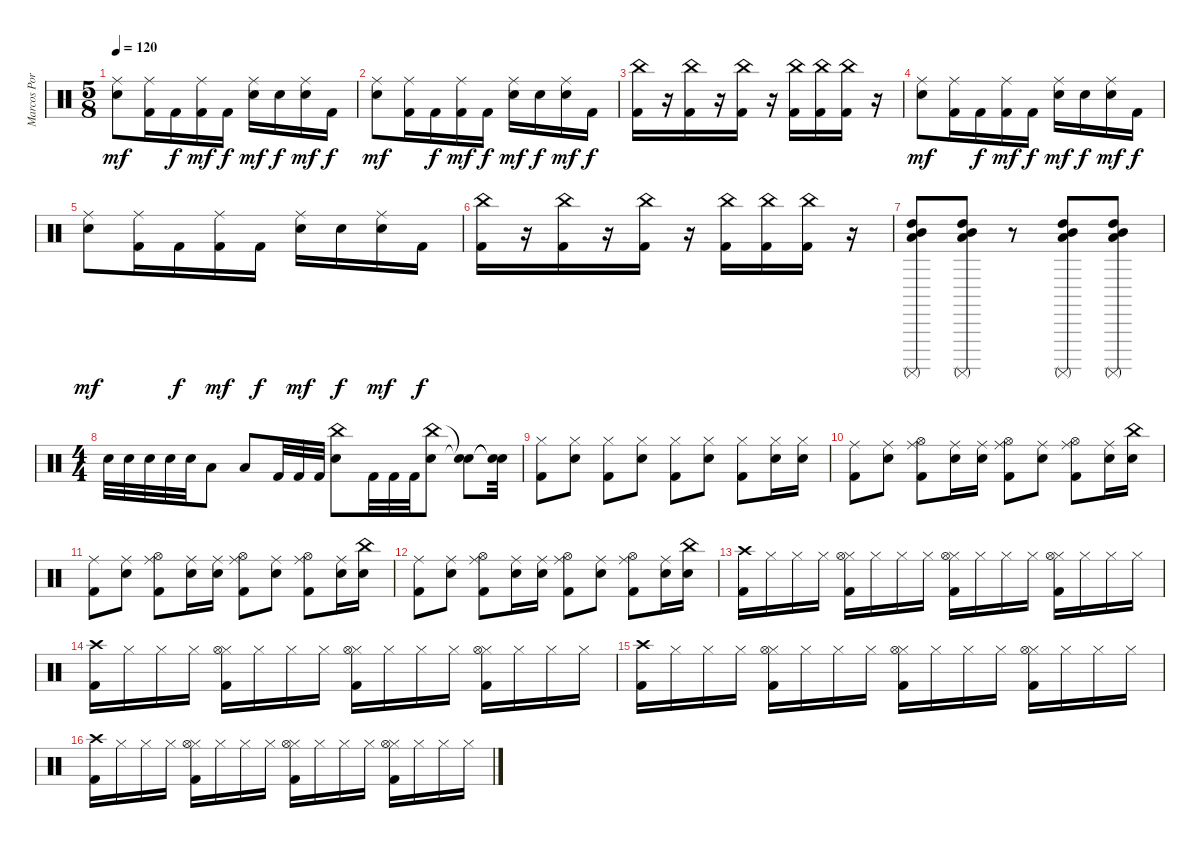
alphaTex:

\track ("Marcos Portinol" "Marcos Por") {instrument percussion}
\staff {score}
\articulation defaults
\ts (5 8)
\tempo 120
\clef neutral
\ks c
("Electric Snare (hit)" "Ride (middle)").8{dy mf} ("Kick (hit) 2" "Ride (middle)").16 "Kick (hit) 2".16{dy f} ("Kick (hit) 2" "Ride (middle)").16{dy mf} "Kick (hit) 2".16{dy f} ("Electric Snare (hit)" "Ride (middle)").16{dy mf} "Electric Snare (hit)".16{dy f} ("Electric Snare (hit)" "Ride (middle)").16{dy mf} "Kick (hit) 2".16{dy f} |
("Electric Snare (hit)" "Ride (middle)").8{dy mf} ("Kick (hit) 2" "Ride (middle)").16 "Kick (hit) 2".16{dy f} ("Kick (hit) 2" "Ride (middle)").16{dy mf} "Kick (hit) 2".16{dy f} ("Electric Snare (hit)" "Ride (middle)").16{dy mf} "Electric Snare (hit)".16{dy f} ("Electric Snare (hit)" "Ride (middle)").16{dy mf} "Kick (hit) 2".16{dy f} |
("Kick (hit) 2" "China (hit)").16 r.16 ("Kick (hit) 2" "China (hit)").16 r.16 ("Kick (hit) 2" "China (hit)").16 r.16 ("Kick (hit) 2" "China (hit)").16 ("Kick (hit) 2" "China (hit)").16 ("Kick (hit) 2" "China (hit)").16 r.16 |
("Electric Snare (hit)" "Ride (middle)").8{dy mf} ("Kick (hit) 2" "Ride (middle)").16 "Kick (hit) 2".16{dy f} ("Kick (hit) 2" "Ride (middle)").16{dy mf} "Kick (hit) 2".16{dy f} ("Electric Snare (hit)" "Ride (middle)").16{dy mf} "Electric Snare (hit)".16{dy f} ("Electric Snare (hit)" "Ride (middle)").16{dy mf} "Kick (hit) 2".16{dy f} |
("Electric Snare (hit)" "Ride (middle)").8{dy mf} ("Kick (hit) 2" "Ride (middle)").16 "Kick (hit) 2".16{dy f} ("Kick (hit) 2" "Ride (middle)").16{dy mf} "Kick (hit) 2".16{dy f} ("Electric Snare (hit)" "Ride (middle)").16{dy mf} "Electric Snare (hit)".16{dy f} ("Electric Snare (hit)" "Ride (middle)").16{dy mf} "Kick (hit) 2".16{dy f} |
("Kick (hit) 2" "China (hit)").16 r.16 ("Kick (hit) 2" "China (hit)").16 r.16 ("Kick (hit) 2" "China (hit)").16 r.16 ("Kick (hit) 2" "China (hit)").16 ("Kick (hit) 2" "China (hit)").16 ("Kick (hit) 2" "China (hit)").16 r.16 |
("Surdo (mute)" "Mid Tom (hit)" "Low Tom (hit)" "High Tom (hit)").8 ("Surdo (mute)" "Mid Tom (hit)" "Low Tom (hit)" "High Tom (hit)").8 r.8 ("Surdo (mute)" "Mid Tom (hit)" "Low Tom (hit)" "High Tom (hit)").8 ("Surdo (mute)" "Mid Tom (hit)" "Low Tom (hit)" "High Tom (hit)").8 |
\ts (4 4)
"Electric Snare (hit)".32 "Electric Snare (hit)".32 "Electric Snare (hit)".32 "Electric Snare (hit)".32 "Electric Snare (hit)".32 "Low Tom (hit)".8 "Low Tom (hit)".8 "Kick (hit) 2".32 "Kick (hit) 2".32 "Kick (hit) 2".32 ("Electric Snare (hit)" "China (hit)").8 "Kick (hit) 2".32 "Kick (hit) 2".32 "Kick (hit) 2".32 ("Electric Snare (hit)" "China (hit)").8 ("Snare (hit)"{t} "Snare (hit)"{t}).8 ("Snare (hit)"{t} "Snare (hit)"{t}).32 |
("Kick (hit) 2" "Hi-Hat (closed)").8 ("Electric Snare (hit)" "Hi-Hat (closed)").8 ("Kick (hit) 2" "Hi-Hat (closed)").8 ("Electric Snare (hit)" "Hi-Hat (closed)").8 ("Kick (hit) 2" "Hi-Hat (closed)").8 ("Electric Snare (hit)" "Hi-Hat (closed)").8 ("Kick (hit) 2" "Hi-Hat (closed)").8 ("Electric Snare (hit)" "Hi-Hat (closed)").16 ("Electric Snare (hit)" "Hi-Hat (closed)").16 |
("Kick (hit) 2" "Ride (middle)").8 ("Electric Snare (hit)" "Ride (middle)").8 ("Kick (hit) 2" "Hi-Hat (open)" "Ride (middle)").8 ("Electric Snare (hit)" "Ride (middle)").16 ("Electric Snare (hit)" "Ride (middle)").16 ("Kick (hit) 2" "Hi-Hat (open)" "Ride (middle)").8 ("Electric Snare (hit)" "Ride (middle)").8 ("Kick (hit) 2" "Hi-Hat (open)" "Ride (middle)").8 ("Electric Snare (hit)" "Ride (middle)").16 ("Electric Snare (hit)" "China (hit)").16 |
("Kick (hit) 2" "Ride (middle)").8 ("Electric Snare (hit)" "Ride (middle)").8 ("Kick (hit) 2" "Hi-Hat (open)" "Ride (middle)").8 ("Electric Snare (hit)" "Ride (middle)").16 ("Electric Snare (hit)" "Ride (middle)").16 ("Kick (hit) 2" "Hi-Hat (open)" "Ride (middle)").8 ("Electric Snare (hit)" "Ride (middle)").8 ("Kick (hit) 2" "Hi-Hat (open)" "Ride (middle)").8 ("Electric Snare (hit)" "Ride (middle)").16 ("Electric Snare (hit)" "China (hit)").16 |
("Kick (hit) 2" "Ride (middle)").8 ("Electric Snare (hit)" "Ride (middle)").8 ("Kick (hit) 2" "Hi-Hat (open)" "Ride (middle)").8 ("Electric Snare (hit)" "Ride (middle)").16 ("Electric Snare (hit)" "Ride (middle)").16 ("Kick (hit) 2" "Hi-Hat (open)" "Ride (middle)").8 ("Electric Snare (hit)" "Ride (middle)").8 ("Kick (hit) 2" "Hi-Hat (open)" "Ride (middle)").8 ("Electric Snare (hit)" "Ride (middle)").16 ("Electric Snare (hit)" "China (hit)").16 |
("Kick (hit) 2" "Crash high (hit)").16 "Hi-Hat (closed)".16 "Hi-Hat (closed)".16 "Hi-Hat (closed)".16 ("Kick (hit) 2" "Hi-Hat (closed)" "Hi-Hat (open)").16 "Hi-Hat (closed)".16 "Hi-Hat (closed)".16 "Hi-Hat (closed)".16 ("Kick (hit) 2" "Hi-Hat (closed)" "Hi-Hat (open)").16 "Hi-Hat (closed)".16 "Hi-Hat (closed)".16 "Hi-Hat (closed)".16 ("Kick (hit) 2" "Hi-Hat (closed)" "Hi-Hat (open)").16 "Hi-Hat (closed)".16 "Hi-Hat (closed)".16 "Hi-Hat (closed)".16 |
("Kick (hit) 2" "Crash high (hit)").16 "Hi-Hat (closed)".16 "Hi-Hat (closed)".16 "Hi-Hat (closed)".16 ("Kick (hit) 2" "Hi-Hat (closed)" "Hi-Hat (open)").16 "Hi-Hat (closed)".16 "Hi-Hat (closed)".16 "Hi-Hat (closed)".16 ("Kick (hit) 2" "Hi-Hat (closed)" "Hi-Hat (open)").16 "Hi-Hat (closed)".16 "Hi-Hat (closed)".16 "Hi-Hat (closed)".16 ("Kick (hit) 2" "Hi-Hat (closed)" "Hi-Hat (open)").16 "Hi-Hat (closed)".16 "Hi-Hat (closed)".16 "Hi-Hat (closed)".16 |
("Kick (hit) 2" "Crash high (hit)").16 "Hi-Hat (closed)".16 "Hi-Hat (closed)".16 "Hi-Hat (closed)".16 ("Kick (hit) 2" "Hi-Hat (closed)" "Hi-Hat (open)").16 "Hi-Hat (closed)".16 "Hi-Hat (closed)".16 "Hi-Hat (closed)".16 ("Kick (hit) 2" "Hi-Hat (closed)" "Hi-Hat (open)").16 "Hi-Hat (closed)".16 "Hi-Hat (closed)".16 "Hi-Hat (closed)".16 ("Kick (hit) 2" "Hi-Hat (closed)" "Hi-Hat (open)").16 "Hi-Hat (closed)".16 "Hi-Hat (closed)".16 "Hi-Hat (closed)".16 |
("Kick (hit) 2" "Crash high (hit)").16 "Hi-Hat (closed)".16 "Hi-Hat (closed)".16 "Hi-Hat (closed)".16 ("Kick (hit) 2" "Hi-Hat (closed)" "Hi-Hat (open)").16 "Hi-Hat (closed)".16 "Hi-Hat (closed)".16 "Hi-Hat (closed)".16 ("Kick (hit) 2" "Hi-Hat (closed)" "Hi-Hat (open)").16 "Hi-Hat (closed)".16 "Hi-Hat (closed)".16 "Hi-Hat (closed)".16 ("Kick (hit) 2" "Hi-Hat (closed)" "Hi-Hat (open)").16 "Hi-Hat (closed)".16 "Hi-Hat (closed)".16 "Hi-Hat (closed)".16
